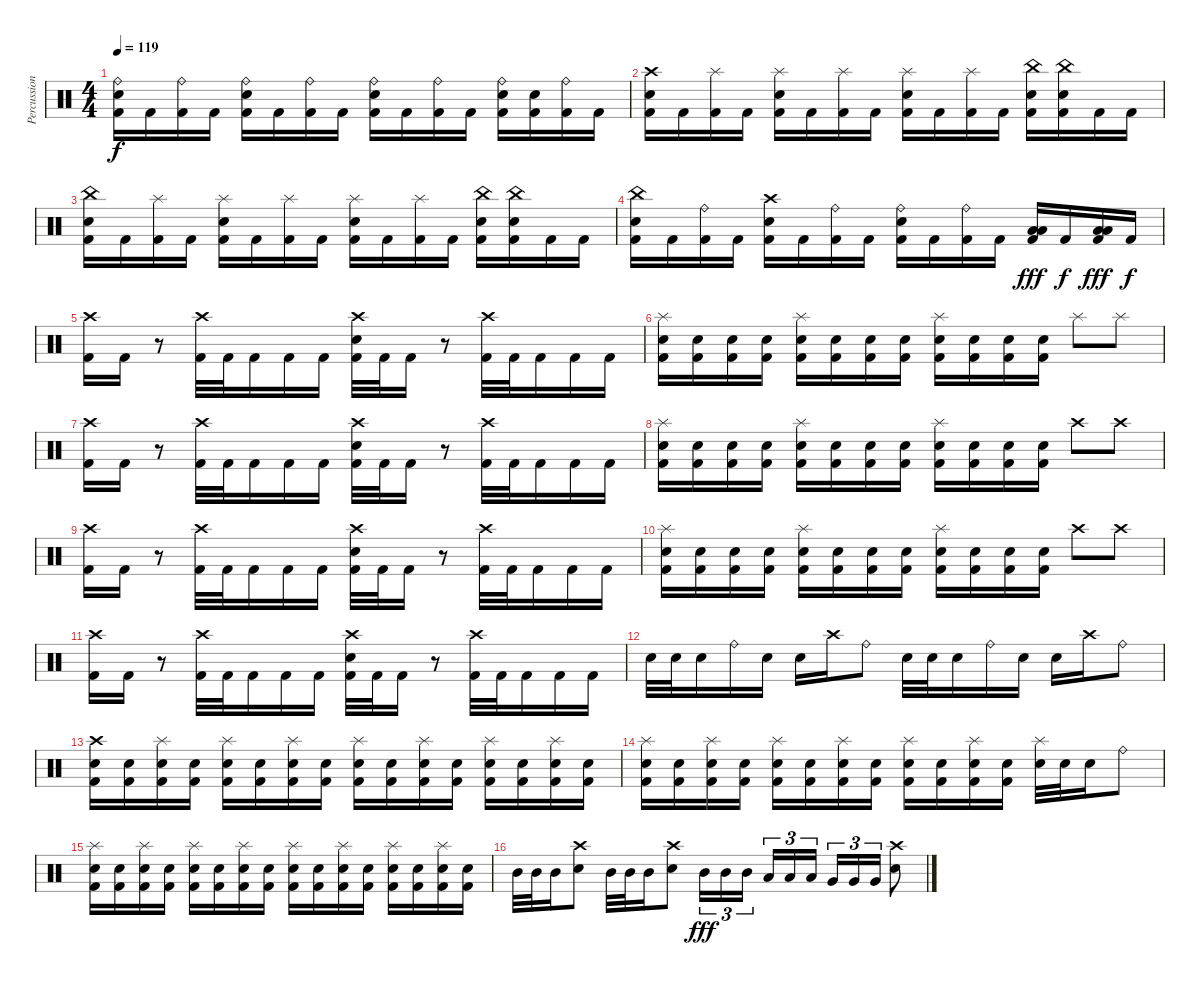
\track ("Percussion" "Percussion") {instrument percussion}
\staff {score}
\articulation defaults
\ts (4 4)
\tempo 119
\clef neutral
\ks c
("Ride (bell)" "Electric Snare (hit)" "Kick (hit) 2").16{dy f} "Kick (hit) 2".16 ("Ride (bell)" "Kick (hit) 2").16 "Kick (hit) 2".16 ("Ride (bell)" "Electric Snare (hit)" "Kick (hit) 2").16 "Kick (hit) 2".16 ("Ride (bell)" "Kick (hit) 2").16 "Kick (hit) 2".16 ("Ride (bell)" "Electric Snare (hit)" "Kick (hit) 2").16 "Kick (hit) 2".16 ("Ride (bell)" "Kick (hit) 2").16 "Kick (hit) 2".16 ("Ride (bell)" "Electric Snare (hit)" "Kick (hit) 2").16 ("Electric Snare (hit)" "Kick (hit) 2").16 ("Ride (bell)" "Kick (hit) 2").16 "Kick (hit) 2".16 |
("Crash high (hit)" "Electric Snare (hit)" "Kick (hit) 2").16 "Kick (hit) 2".16 ("Splash (hit)" "Kick (hit) 2").16 "Kick (hit) 2".16 ("Splash (hit)" "Electric Snare (hit)" "Kick (hit) 2").16 "Kick (hit) 2".16 ("Splash (hit)" "Kick (hit) 2").16 "Kick (hit) 2".16 ("Splash (hit)" "Electric Snare (hit)" "Kick (hit) 2").16 "Kick (hit) 2".16 ("Splash (hit)" "Kick (hit) 2").16 "Kick (hit) 2".16 ("China (hit)" "Electric Snare (hit)" "Kick (hit) 2").16 ("China (hit)" "Electric Snare (hit)" "Kick (hit) 2").16 "Kick (hit) 2".16 "Kick (hit) 2".16 |
("China (hit)" "Electric Snare (hit)" "Kick (hit) 2").16 "Kick (hit) 2".16 ("Splash (hit)" "Kick (hit) 2").16 "Kick (hit) 2".16 ("Splash (hit)" "Electric Snare (hit)" "Kick (hit) 2").16 "Kick (hit) 2".16 ("Splash (hit)" "Kick (hit) 2").16 "Kick (hit) 2".16 ("Splash (hit)" "Electric Snare (hit)" "Kick (hit) 2").16 "Kick (hit) 2".16 ("Splash (hit)" "Kick (hit) 2").16 "Kick (hit) 2".16 ("China (hit)" "Electric Snare (hit)" "Kick (hit) 2").16 ("China (hit)" "Electric Snare (hit)" "Kick (hit) 2").16 "Kick (hit) 2".16 "Kick (hit) 2".16 |
("China (hit)" "Electric Snare (hit)" "Kick (hit) 2").16 "Kick (hit) 2".16 ("Ride (bell)" "Kick (hit) 2").16 "Kick (hit) 2".16 ("Crash high (hit)" "Electric Snare (hit)" "Kick (hit) 2").16 "Kick (hit) 2".16 ("Ride (bell)" "Kick (hit) 2").16 "Kick (hit) 2".16 ("Ride (bell)" "Electric Snare (hit)" "Kick (hit) 2").16 "Kick (hit) 2".16 ("Ride (bell)" "Kick (hit) 2").16 "Kick (hit) 2".16 ("Low Tom (hit)" "Low Tom (hit)" "Kick (hit) 2").16{dy fff} "Kick (hit) 2".16{dy f} ("Low Tom (hit)" "Low Tom (hit)" "Kick (hit) 2").16{dy fff} "Kick (hit) 2".16{dy f} |
("Crash high (hit)" "Kick (hit) 2").16 "Kick (hit) 2".16 r.8 ("Crash high (hit)" "Kick (hit) 2").32 "Kick (hit) 2".32 "Kick (hit) 2".16 "Kick (hit) 2".16 "Kick (hit) 2".16 ("Crash high (hit)" "Electric Snare (hit)" "Kick (hit) 2").32 "Kick (hit) 2".32 "Kick (hit) 2".16 r.8 ("Crash high (hit)" "Kick (hit) 2").32 "Kick (hit) 2".32 "Kick (hit) 2".16 "Kick (hit) 2".16 "Kick (hit) 2".16 |
("Splash (hit)" "Electric Snare (hit)" "Kick (hit) 2").16 ("Electric Snare (hit)" "Kick (hit) 2").16 ("Electric Snare (hit)" "Kick (hit) 2").16 ("Electric Snare (hit)" "Kick (hit) 2").16 ("Splash (hit)" "Electric Snare (hit)" "Kick (hit) 2").16 ("Electric Snare (hit)" "Kick (hit) 2").16 ("Electric Snare (hit)" "Kick (hit) 2").16 ("Electric Snare (hit)" "Kick (hit) 2").16 ("Splash (hit)" "Electric Snare (hit)" "Kick (hit) 2").16 ("Electric Snare (hit)" "Kick (hit) 2").16 ("Electric Snare (hit)" "Kick (hit) 2").16 ("Electric Snare (hit)" "Kick (hit) 2").16 "Splash (hit)".8 "Splash (hit)".8 |
("Crash high (hit)" "Kick (hit) 2").16 "Kick (hit) 2".16 r.8 ("Crash high (hit)" "Kick (hit) 2").32 "Kick (hit) 2".32 "Kick (hit) 2".16 "Kick (hit) 2".16 "Kick (hit) 2".16 ("Crash high (hit)" "Electric Snare (hit)" "Kick (hit) 2").32 "Kick (hit) 2".32 "Kick (hit) 2".16 r.8 ("Crash high (hit)" "Kick (hit) 2").32 "Kick (hit) 2".32 "Kick (hit) 2".16 "Kick (hit) 2".16 "Kick (hit) 2".16 |
("Splash (hit)" "Electric Snare (hit)" "Kick (hit) 2").16 ("Electric Snare (hit)" "Kick (hit) 2").16 ("Electric Snare (hit)" "Kick (hit) 2").16 ("Electric Snare (hit)" "Kick (hit) 2").16 ("Splash (hit)" "Electric Snare (hit)" "Kick (hit) 2").16 ("Electric Snare (hit)" "Kick (hit) 2").16 ("Electric Snare (hit)" "Kick (hit) 2").16 ("Electric Snare (hit)" "Kick (hit) 2").16 ("Splash (hit)" "Electric Snare (hit)" "Kick (hit) 2").16 ("Electric Snare (hit)" "Kick (hit) 2").16 ("Electric Snare (hit)" "Kick (hit) 2").16 ("Electric Snare (hit)" "Kick (hit) 2").16 "Crash high (hit)".8 "Crash high (hit)".8 |
("Crash high (hit)" "Kick (hit) 2").16 "Kick (hit) 2".16 r.8 ("Crash high (hit)" "Kick (hit) 2").32 "Kick (hit) 2".32 "Kick (hit) 2".16 "Kick (hit) 2".16 "Kick (hit) 2".16 ("Crash high (hit)" "Electric Snare (hit)" "Kick (hit) 2").32 "Kick (hit) 2".32 "Kick (hit) 2".16 r.8 ("Crash high (hit)" "Kick (hit) 2").32 "Kick (hit) 2".32 "Kick (hit) 2".16 "Kick (hit) 2".16 "Kick (hit) 2".16 |
("Splash (hit)" "Electric Snare (hit)" "Kick (hit) 2").16 ("Electric Snare (hit)" "Kick (hit) 2").16 ("Electric Snare (hit)" "Kick (hit) 2").16 ("Electric Snare (hit)" "Kick (hit) 2").16 ("Splash (hit)" "Electric Snare (hit)" "Kick (hit) 2").16 ("Electric Snare (hit)" "Kick (hit) 2").16 ("Electric Snare (hit)" "Kick (hit) 2").16 ("Electric Snare (hit)" "Kick (hit) 2").16 ("Splash (hit)" "Electric Snare (hit)" "Kick (hit) 2").16 ("Electric Snare (hit)" "Kick (hit) 2").16 ("Electric Snare (hit)" "Kick (hit) 2").16 ("Electric Snare (hit)" "Kick (hit) 2").16 "Crash high (hit)".8 "Crash high (hit)".8 |
("Crash high (hit)" "Kick (hit) 2").16 "Kick (hit) 2".16 r.8 ("Crash high (hit)" "Kick (hit) 2").32 "Kick (hit) 2".32 "Kick (hit) 2".16 "Kick (hit) 2".16 "Kick (hit) 2".16 ("Crash high (hit)" "Electric Snare (hit)" "Kick (hit) 2").32 "Kick (hit) 2".32 "Kick (hit) 2".16 r.8 ("Crash high (hit)" "Kick (hit) 2").32 "Kick (hit) 2".32 "Kick (hit) 2".16 "Kick (hit) 2".16 "Kick (hit) 2".16 |
"Electric Snare (hit)".32 "Electric Snare (hit)".32 "Electric Snare (hit)".16 "Ride (bell)".16 "Electric Snare (hit)".16 "Electric Snare (hit)".16 "Crash high (hit)".16 "Ride (bell)".8 "Electric Snare (hit)".32 "Electric Snare (hit)".32 "Electric Snare (hit)".16 "Ride (bell)".16 "Electric Snare (hit)".16 "Electric Snare (hit)".16 "Crash high (hit)".16 "Ride (bell)".8 |
("Crash high (hit)" "Electric Snare (hit)" "Kick (hit) 2").16 ("Electric Snare (hit)" "Kick (hit) 2").16 ("Splash (hit)" "Electric Snare (hit)" "Kick (hit) 2").16 ("Electric Snare (hit)" "Kick (hit) 2").16 ("Splash (hit)" "Electric Snare (hit)" "Kick (hit) 2").16 ("Electric Snare (hit)" "Kick (hit) 2").16 ("Splash (hit)" "Electric Snare (hit)" "Kick (hit) 2").16 ("Electric Snare (hit)" "Kick (hit) 2").16 ("Splash (hit)" "Electric Snare (hit)" "Kick (hit) 2").16 ("Electric Snare (hit)" "Kick (hit) 2").16 ("Splash (hit)" "Electric Snare (hit)" "Kick (hit) 2").16 ("Electric Snare (hit)" "Kick (hit) 2").16 ("Splash (hit)" "Electric Snare (hit)" "Kick (hit) 2").16 ("Electric Snare (hit)" "Kick (hit) 2").16 ("Splash (hit)" "Electric Snare (hit)" "Kick (hit) 2").16 ("Electric Snare (hit)" "Kick (hit) 2").16 |
("Splash (hit)" "Electric Snare (hit)" "Kick (hit) 2").16 ("Electric Snare (hit)" "Kick (hit) 2").16 ("Splash (hit)" "Electric Snare (hit)" "Kick (hit) 2").16 ("Electric Snare (hit)" "Kick (hit) 2").16 ("Splash (hit)" "Electric Snare (hit)" "Kick (hit) 2").16 ("Electric Snare (hit)" "Kick (hit) 2").16 ("Splash (hit)" "Electric Snare (hit)" "Kick (hit) 2").16 ("Electric Snare (hit)" "Kick (hit) 2").16 ("Splash (hit)" "Electric Snare (hit)" "Kick (hit) 2").16 ("Electric Snare (hit)" "Kick (hit) 2").16 ("Splash (hit)" "Electric Snare (hit)" "Kick (hit) 2").16 ("Electric Snare (hit)" "Kick (hit) 2").16 ("Splash (hit)" "Electric Snare (hit)").32 "Electric Snare (hit)".32 "Electric Snare (hit)".16 "Ride (bell)".8 |
("Splash (hit)" "Electric Snare (hit)" "Kick (hit) 2").16 ("Electric Snare (hit)" "Kick (hit) 2").16 ("Splash (hit)" "Electric Snare (hit)" "Kick (hit) 2").16 ("Electric Snare (hit)" "Kick (hit) 2").16 ("Splash (hit)" "Electric Snare (hit)" "Kick (hit) 2").16 ("Electric Snare (hit)" "Kick (hit) 2").16 ("Splash (hit)" "Electric Snare (hit)" "Kick (hit) 2").16 ("Electric Snare (hit)" "Kick (hit) 2").16 ("Splash (hit)" "Electric Snare (hit)" "Kick (hit) 2").16 ("Electric Snare (hit)" "Kick (hit) 2").16 ("Splash (hit)" "Electric Snare (hit)" "Kick (hit) 2").16 ("Electric Snare (hit)" "Kick (hit) 2").16 ("Splash (hit)" "Electric Snare (hit)" "Kick (hit) 2").16 ("Electric Snare (hit)" "Kick (hit) 2").16 ("Splash (hit)" "Electric Snare (hit)" "Kick (hit) 2").16 ("Electric Snare (hit)" "Kick (hit) 2").16 |
"Mid Tom (hit)".32 "Mid Tom (hit)".32 "Mid Tom (hit)".16 ("Crash high (hit)" "Electric Snare (hit)").8 "Mid Tom (hit)".32 "Mid Tom (hit)".32 "Mid Tom (hit)".16 ("Crash high (hit)" "Electric Snare (hit)").8 "Mid Tom (hit)".16{tu (3 2) dy fff} "Mid Tom (hit)".16{tu (3 2)} "Mid Tom (hit)".16{tu (3 2)} "Low Tom (hit)".16{tu (3 2)} "Low Tom (hit)".16{tu (3 2)} "Low Tom (hit)".16{tu (3 2)} "Very Low Tom (hit)".16{tu (3 2)} "Very Low Tom (hit)".16{tu (3 2)} "Very Low Tom (hit)".16{tu (3 2)} ("Crash high (hit)" "Electric Snare (hit)").8
